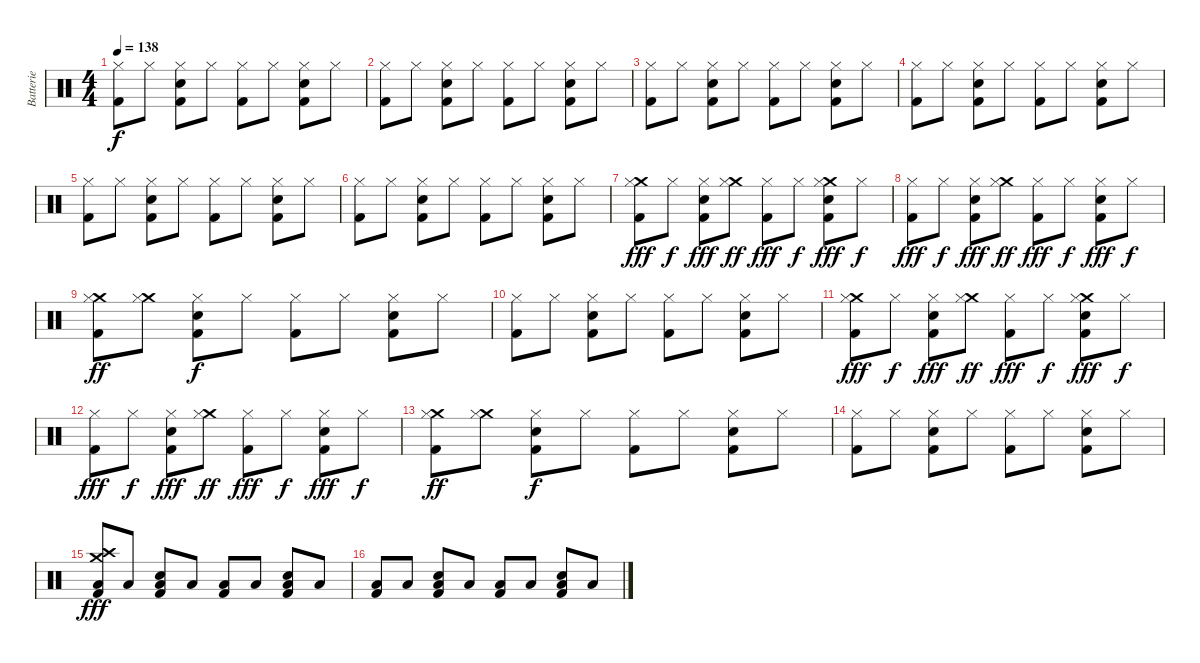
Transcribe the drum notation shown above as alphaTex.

\track ("Batterie" "Batterie") {instrument percussion}
\staff {score}
\articulation defaults
\ts (4 4)
\tempo 138
\clef neutral
\ks c
("Hi-Hat (closed)" "Kick (hit) 2").8{dy f} "Hi-Hat (closed)".8 ("Hi-Hat (closed)" "Electric Snare (hit)" "Kick (hit) 2").8 "Hi-Hat (closed)".8 ("Hi-Hat (closed)" "Kick (hit) 2").8 "Hi-Hat (closed)".8 ("Hi-Hat (closed)" "Electric Snare (hit)" "Kick (hit) 2").8 "Hi-Hat (closed)".8 |
("Hi-Hat (closed)" "Kick (hit) 2").8 "Hi-Hat (closed)".8 ("Hi-Hat (closed)" "Electric Snare (hit)" "Kick (hit) 2").8 "Hi-Hat (closed)".8 ("Hi-Hat (closed)" "Kick (hit) 2").8 "Hi-Hat (closed)".8 ("Hi-Hat (closed)" "Electric Snare (hit)" "Kick (hit) 2").8 "Hi-Hat (closed)".8 |
("Hi-Hat (closed)" "Kick (hit) 2").8 "Hi-Hat (closed)".8 ("Hi-Hat (closed)" "Electric Snare (hit)" "Kick (hit) 2").8 "Hi-Hat (closed)".8 ("Hi-Hat (closed)" "Kick (hit) 2").8 "Hi-Hat (closed)".8 ("Hi-Hat (closed)" "Electric Snare (hit)" "Kick (hit) 2").8 "Hi-Hat (closed)".8 |
("Hi-Hat (closed)" "Kick (hit) 2").8 "Hi-Hat (closed)".8 ("Hi-Hat (closed)" "Electric Snare (hit)" "Kick (hit) 2").8 "Hi-Hat (closed)".8 ("Hi-Hat (closed)" "Kick (hit) 2").8 "Hi-Hat (closed)".8 ("Hi-Hat (closed)" "Electric Snare (hit)" "Kick (hit) 2").8 "Hi-Hat (closed)".8 |
("Hi-Hat (closed)" "Kick (hit) 2").8 "Hi-Hat (closed)".8 ("Hi-Hat (closed)" "Electric Snare (hit)" "Kick (hit) 2").8 "Hi-Hat (closed)".8 ("Hi-Hat (closed)" "Kick (hit) 2").8 "Hi-Hat (closed)".8 ("Hi-Hat (closed)" "Electric Snare (hit)" "Kick (hit) 2").8 "Hi-Hat (closed)".8 |
("Hi-Hat (closed)" "Kick (hit) 2").8 "Hi-Hat (closed)".8 ("Hi-Hat (closed)" "Electric Snare (hit)" "Kick (hit) 2").8 "Hi-Hat (closed)".8 ("Hi-Hat (closed)" "Kick (hit) 2").8 "Hi-Hat (closed)".8 ("Hi-Hat (closed)" "Electric Snare (hit)" "Kick (hit) 2").8 "Hi-Hat (closed)".8 |
("Crash medium (hit)" "Hi-Hat (closed)" "Kick (hit) 2").8{dy fff} "Hi-Hat (closed)".8{dy f} ("Hi-Hat (closed)" "Electric Snare (hit)" "Kick (hit) 2").8{dy fff} ("Crash medium (hit)" "Hi-Hat (closed)").8{dy ff} ("Hi-Hat (closed)" "Kick (hit) 2").8{dy fff} "Hi-Hat (closed)".8{dy f} ("Crash medium (hit)" "Hi-Hat (closed)" "Electric Snare (hit)" "Kick (hit) 2").8{dy fff} "Hi-Hat (closed)".8{dy f} |
("Hi-Hat (closed)" "Kick (hit) 2").8{dy fff} "Hi-Hat (closed)".8{dy f} ("Hi-Hat (closed)" "Electric Snare (hit)" "Kick (hit) 2").8{dy fff} ("Crash medium (hit)" "Hi-Hat (closed)").8{dy ff} ("Hi-Hat (closed)" "Kick (hit) 2").8{dy fff} "Hi-Hat (closed)".8{dy f} ("Hi-Hat (closed)" "Electric Snare (hit)" "Kick (hit) 2").8{dy fff} "Hi-Hat (closed)".8{dy f} |
("Crash medium (hit)" "Hi-Hat (closed)" "Kick (hit) 2").8{dy ff} ("Crash medium (hit)" "Hi-Hat (closed)").8 ("Hi-Hat (closed)" "Electric Snare (hit)" "Kick (hit) 2").8{dy f} "Hi-Hat (closed)".8 ("Hi-Hat (closed)" "Kick (hit) 2").8 "Hi-Hat (closed)".8 ("Hi-Hat (closed)" "Electric Snare (hit)" "Kick (hit) 2").8 "Hi-Hat (closed)".8 |
("Hi-Hat (closed)" "Kick (hit) 2").8 "Hi-Hat (closed)".8 ("Hi-Hat (closed)" "Electric Snare (hit)" "Kick (hit) 2").8 "Hi-Hat (closed)".8 ("Hi-Hat (closed)" "Kick (hit) 2").8 "Hi-Hat (closed)".8 ("Hi-Hat (closed)" "Electric Snare (hit)" "Kick (hit) 2").8 "Hi-Hat (closed)".8 |
("Crash medium (hit)" "Hi-Hat (closed)" "Kick (hit) 2").8{dy fff} "Hi-Hat (closed)".8{dy f} ("Hi-Hat (closed)" "Electric Snare (hit)" "Kick (hit) 2").8{dy fff} ("Crash medium (hit)" "Hi-Hat (closed)").8{dy ff} ("Hi-Hat (closed)" "Kick (hit) 2").8{dy fff} "Hi-Hat (closed)".8{dy f} ("Crash medium (hit)" "Hi-Hat (closed)" "Electric Snare (hit)" "Kick (hit) 2").8{dy fff} "Hi-Hat (closed)".8{dy f} |
("Hi-Hat (closed)" "Kick (hit) 2").8{dy fff} "Hi-Hat (closed)".8{dy f} ("Hi-Hat (closed)" "Electric Snare (hit)" "Kick (hit) 2").8{dy fff} ("Crash medium (hit)" "Hi-Hat (closed)").8{dy ff} ("Hi-Hat (closed)" "Kick (hit) 2").8{dy fff} "Hi-Hat (closed)".8{dy f} ("Hi-Hat (closed)" "Electric Snare (hit)" "Kick (hit) 2").8{dy fff} "Hi-Hat (closed)".8{dy f} |
("Crash medium (hit)" "Hi-Hat (closed)" "Kick (hit) 2").8{dy ff} ("Crash medium (hit)" "Hi-Hat (closed)").8 ("Hi-Hat (closed)" "Electric Snare (hit)" "Kick (hit) 2").8{dy f} "Hi-Hat (closed)".8 ("Hi-Hat (closed)" "Kick (hit) 2").8 "Hi-Hat (closed)".8 ("Hi-Hat (closed)" "Electric Snare (hit)" "Kick (hit) 2").8 "Hi-Hat (closed)".8 |
("Hi-Hat (closed)" "Kick (hit) 2").8 "Hi-Hat (closed)".8 ("Hi-Hat (closed)" "Electric Snare (hit)" "Kick (hit) 2").8 "Hi-Hat (closed)".8 ("Hi-Hat (closed)" "Kick (hit) 2").8 "Hi-Hat (closed)".8 ("Hi-Hat (closed)" "Electric Snare (hit)" "Kick (hit) 2").8 "Hi-Hat (closed)".8 |
("Crash high (hit)" "Crash medium (hit)" "Low Floor Tom (hit)" "Kick (hit) 2").8{dy fff} "Low Floor Tom (hit)".8 ("Low Floor Tom (hit)" "Electric Snare (hit)" "Kick (hit) 2").8 "Low Floor Tom (hit)".8 ("Low Floor Tom (hit)" "Kick (hit) 2").8 "Low Floor Tom (hit)".8 ("Low Floor Tom (hit)" "Electric Snare (hit)" "Kick (hit) 2").8 "Low Floor Tom (hit)".8 |
("Low Floor Tom (hit)" "Kick (hit) 2").8 "Low Floor Tom (hit)".8 ("Low Floor Tom (hit)" "Electric Snare (hit)" "Kick (hit) 2").8 "Low Floor Tom (hit)".8 ("Low Floor Tom (hit)" "Kick (hit) 2").8 "Low Floor Tom (hit)".8 ("Low Floor Tom (hit)" "Electric Snare (hit)" "Kick (hit) 2").8 "Low Floor Tom (hit)".8
